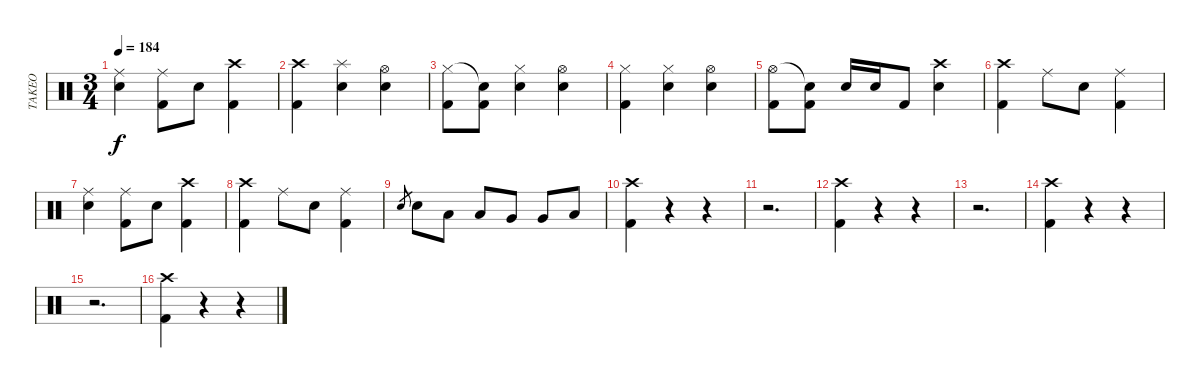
\track ("TAKEO" "TAKEO") {instrument percussion}
\staff {score}
\articulation defaults
\ts (3 4)
\tempo 184
\clef neutral
\ks c
("Ride (middle)" "Electric Snare (hit)").4{dy f} ("Ride (middle)" "Kick (hit) 2").8 "Electric Snare (hit)".8 ("Crash high (hit)" "Kick (hit) 2").4 |
("Crash high (hit)" "Kick (hit) 2").4 ("Splash (hit)" "Electric Snare (hit)").4 ("Hi-Hat (open)" "Electric Snare (hit)").4 |
("Hi-Hat (closed)" "Kick (hit) 2").8 ("Snare (hit)"{t} "Kick (hit) 2").8 ("Hi-Hat (closed)" "Electric Snare (hit)").4 ("Hi-Hat (open)" "Electric Snare (hit)").4 |
("Hi-Hat (closed)" "Kick (hit) 2").4 ("Hi-Hat (closed)" "Electric Snare (hit)").4 ("Hi-Hat (open)" "Electric Snare (hit)").4 |
("Hi-Hat (open)" "Kick (hit) 2").8 ("Snare (hit)"{t} "Kick (hit) 2").8 "Electric Snare (hit)".16 "Electric Snare (hit)".16 "Kick (hit) 2".8 ("Crash high (hit)" "Electric Snare (hit)").4 |
("Crash high (hit)" "Kick (hit) 2").4 "Ride (middle)".8 "Electric Snare (hit)".8 ("Ride (middle)" "Kick (hit) 2").4 |
("Ride (middle)" "Electric Snare (hit)").4 ("Ride (middle)" "Kick (hit) 2").8 "Electric Snare (hit)".8 ("Crash high (hit)" "Kick (hit) 2").4 |
("Crash high (hit)" "Kick (hit) 2").4 "Ride (middle)".8 "Electric Snare (hit)".8 ("Ride (middle)" "Kick (hit) 2").4 |
"Electric Snare (hit)".8{gr} "Electric Snare (hit)".8 "Low Tom (hit)".8 "Low Tom (hit)".8 "Very Low Tom (hit)".8 "Very Low Tom (hit)".8 "Low Floor Tom (hit)".8 |
("Crash high (hit)" "Kick (hit) 2").4 r.4 r.4 |
r.2{d} |
("Crash high (hit)" "Kick (hit) 2").4 r.4 r.4 |
r.2{d} |
("Crash high (hit)" "Kick (hit) 2").4 r.4 r.4 |
r.2{d} |
("Crash high (hit)" "Kick (hit) 2").4 r.4 r.4
